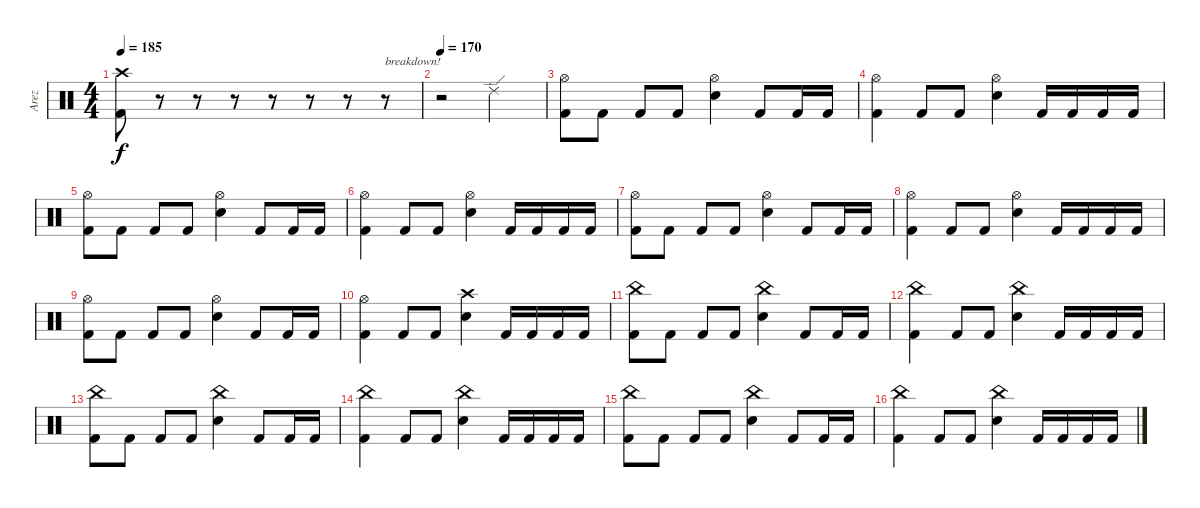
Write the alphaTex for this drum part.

\track ("Arez" "Arez") {instrument percussion}
\staff {score}
\articulation defaults
\ts (4 4)
\tempo 185
\clef neutral
\ks c
("Crash high (hit)" "Kick (hit) 2").8{dy f} r.8 r.8 r.8 r.8 r.8 r.8 r.8{txt "breakdown!"} |
\tempo 170
r.2 "Ride (edge) 2".2 |
("Hi-Hat (open)" "Kick (hit) 2").8 "Kick (hit) 2".8 "Kick (hit) 2".8 "Kick (hit) 2".8 ("Electric Snare (hit)" "Hi-Hat (open)").4 "Kick (hit) 2".8 "Kick (hit) 2".16 "Kick (hit) 2".16 |
("Hi-Hat (open)" "Kick (hit) 2").4 "Kick (hit) 2".8 "Kick (hit) 2".8 ("Electric Snare (hit)" "Hi-Hat (open)").4 "Kick (hit) 2".16 "Kick (hit) 2".16 "Kick (hit) 2".16 "Kick (hit) 2".16 |
("Hi-Hat (open)" "Kick (hit) 2").8 "Kick (hit) 2".8 "Kick (hit) 2".8 "Kick (hit) 2".8 ("Electric Snare (hit)" "Hi-Hat (open)").4 "Kick (hit) 2".8 "Kick (hit) 2".16 "Kick (hit) 2".16 |
("Hi-Hat (open)" "Kick (hit) 2").4 "Kick (hit) 2".8 "Kick (hit) 2".8 ("Electric Snare (hit)" "Hi-Hat (open)").4 "Kick (hit) 2".16 "Kick (hit) 2".16 "Kick (hit) 2".16 "Kick (hit) 2".16 |
("Hi-Hat (open)" "Kick (hit) 2").8 "Kick (hit) 2".8 "Kick (hit) 2".8 "Kick (hit) 2".8 ("Electric Snare (hit)" "Hi-Hat (open)").4 "Kick (hit) 2".8 "Kick (hit) 2".16 "Kick (hit) 2".16 |
("Hi-Hat (open)" "Kick (hit) 2").4 "Kick (hit) 2".8 "Kick (hit) 2".8 ("Electric Snare (hit)" "Hi-Hat (open)").4 "Kick (hit) 2".16 "Kick (hit) 2".16 "Kick (hit) 2".16 "Kick (hit) 2".16 |
("Hi-Hat (open)" "Kick (hit) 2").8 "Kick (hit) 2".8 "Kick (hit) 2".8 "Kick (hit) 2".8 ("Electric Snare (hit)" "Hi-Hat (open)").4 "Kick (hit) 2".8 "Kick (hit) 2".16 "Kick (hit) 2".16 |
("Hi-Hat (open)" "Kick (hit) 2").4 "Kick (hit) 2".8 "Kick (hit) 2".8 ("Crash high (hit)" "Electric Snare (hit)").4 "Kick (hit) 2".16 "Kick (hit) 2".16 "Kick (hit) 2".16 "Kick (hit) 2".16 |
("China (hit)" "Kick (hit) 2").8 "Kick (hit) 2".8 "Kick (hit) 2".8 "Kick (hit) 2".8 ("China (hit)" "Electric Snare (hit)").4 "Kick (hit) 2".8 "Kick (hit) 2".16 "Kick (hit) 2".16 |
("China (hit)" "Kick (hit) 2").4 "Kick (hit) 2".8 "Kick (hit) 2".8 ("Electric Snare (hit)" "China (hit)").4 "Kick (hit) 2".16 "Kick (hit) 2".16 "Kick (hit) 2".16 "Kick (hit) 2".16 |
("China (hit)" "Kick (hit) 2").8 "Kick (hit) 2".8 "Kick (hit) 2".8 "Kick (hit) 2".8 ("China (hit)" "Electric Snare (hit)").4 "Kick (hit) 2".8 "Kick (hit) 2".16 "Kick (hit) 2".16 |
("China (hit)" "Kick (hit) 2").4 "Kick (hit) 2".8 "Kick (hit) 2".8 ("Electric Snare (hit)" "China (hit)").4 "Kick (hit) 2".16 "Kick (hit) 2".16 "Kick (hit) 2".16 "Kick (hit) 2".16 |
("China (hit)" "Kick (hit) 2").8 "Kick (hit) 2".8 "Kick (hit) 2".8 "Kick (hit) 2".8 ("China (hit)" "Electric Snare (hit)").4 "Kick (hit) 2".8 "Kick (hit) 2".16 "Kick (hit) 2".16 |
("China (hit)" "Kick (hit) 2").4 "Kick (hit) 2".8 "Kick (hit) 2".8 ("Electric Snare (hit)" "China (hit)").4 "Kick (hit) 2".16 "Kick (hit) 2".16 "Kick (hit) 2".16 "Kick (hit) 2".16
